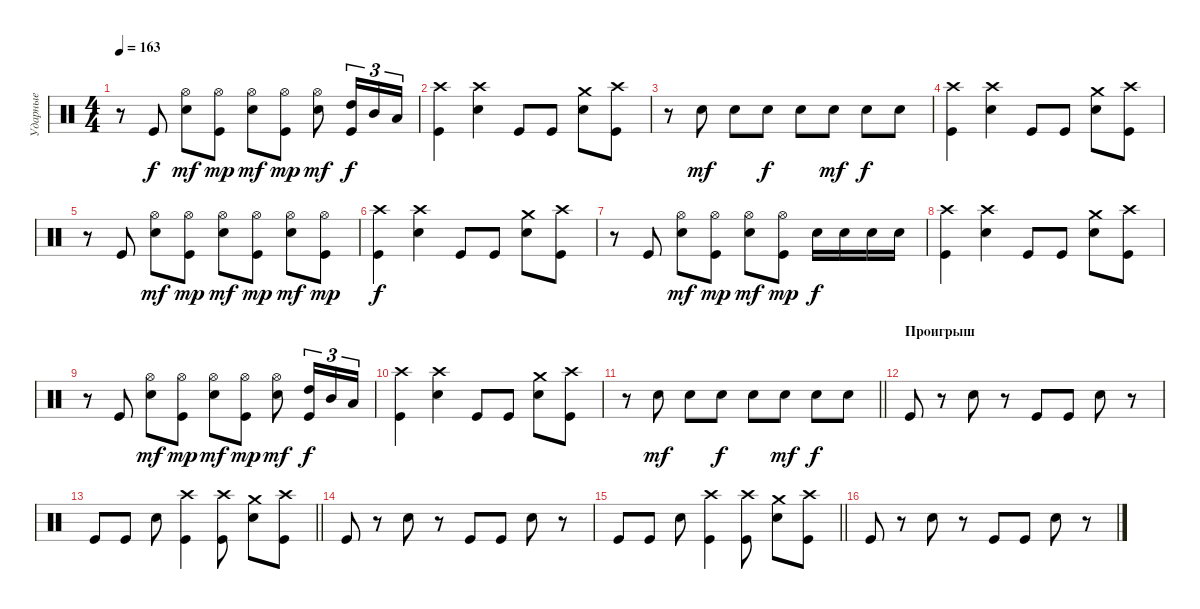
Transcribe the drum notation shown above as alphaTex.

\track ("Ударные" "Ударные") {instrument percussion}
\staff
\articulation defaults
\ts (4 4)
\tempo 163
\clef neutral
\ks c
r.8{dy f} "Kick (hit)".8 ("Hi-Hat (open)" "Snare (hit) 2").8{dy mf} ("Hi-Hat (open)" "Kick (hit)").8{dy mp} ("Hi-Hat (open)" "Snare (hit) 2").8{dy mf} ("Hi-Hat (open)" "Kick (hit)").8{dy mp} ("Hi-Hat (open)" "Snare (hit) 2").8{dy mf} ("High Tom (hit)" "Kick (hit)").16{tu (3 2) dy f} "Mid Tom (hit)".16{tu (3 2)} "Low Tom (hit)".16{tu (3 2)} |
("Crash high (hit)" "Kick (hit)").4 ("Crash high (hit)" "Snare (hit) 2").4 "Kick (hit)".8 "Kick (hit)".8 ("Crash medium (hit)" "Snare (hit) 2").8 ("Crash high (hit)" "Kick (hit)").8 |
r.8 "Snare (hit) 2".8{dy mf} "Snare (hit) 2".8 "Snare (hit) 2".8{dy f} "Snare (hit) 2".8 "Snare (hit) 2".8{dy mf} "Snare (hit) 2".8{dy f} "Snare (hit) 2".8 |
("Crash high (hit)" "Kick (hit)").4 ("Crash high (hit)" "Snare (hit) 2").4 "Kick (hit)".8 "Kick (hit)".8 ("Crash medium (hit)" "Snare (hit) 2").8 ("Crash high (hit)" "Kick (hit)").8 |
r.8 "Kick (hit)".8 ("Hi-Hat (open)" "Snare (hit) 2").8{dy mf} ("Hi-Hat (open)" "Kick (hit)").8{dy mp} ("Hi-Hat (open)" "Snare (hit) 2").8{dy mf} ("Hi-Hat (open)" "Kick (hit)").8{dy mp} ("Hi-Hat (open)" "Snare (hit) 2").8{dy mf} ("Hi-Hat (open)" "Kick (hit)").8{dy mp} |
("Crash high (hit)" "Kick (hit)").4{dy f} ("Crash high (hit)" "Snare (hit) 2").4 "Kick (hit)".8 "Kick (hit)".8 ("Crash medium (hit)" "Snare (hit) 2").8 ("Crash high (hit)" "Kick (hit)").8 |
r.8 "Kick (hit)".8 ("Hi-Hat (open)" "Snare (hit) 2").8{dy mf} ("Hi-Hat (open)" "Kick (hit)").8{dy mp} ("Hi-Hat (open)" "Snare (hit) 2").8{dy mf} ("Hi-Hat (open)" "Kick (hit)").8{dy mp} "Snare (hit) 2".16{dy f} "Snare (hit) 2".16 "Snare (hit) 2".16 "Snare (hit) 2".16 |
("Crash high (hit)" "Kick (hit)").4 ("Crash high (hit)" "Snare (hit) 2").4 "Kick (hit)".8 "Kick (hit)".8 ("Crash medium (hit)" "Snare (hit) 2").8 ("Crash high (hit)" "Kick (hit)").8 |
r.8 "Kick (hit)".8 ("Hi-Hat (open)" "Snare (hit) 2").8{dy mf} ("Hi-Hat (open)" "Kick (hit)").8{dy mp} ("Hi-Hat (open)" "Snare (hit) 2").8{dy mf} ("Hi-Hat (open)" "Kick (hit)").8{dy mp} ("Hi-Hat (open)" "Snare (hit) 2").8{dy mf} ("High Tom (hit)" "Kick (hit)").16{tu (3 2) dy f} "Mid Tom (hit)".16{tu (3 2)} "Low Tom (hit)".16{tu (3 2)} |
("Crash high (hit)" "Kick (hit)").4 ("Crash high (hit)" "Snare (hit) 2").4 "Kick (hit)".8 "Kick (hit)".8 ("Crash medium (hit)" "Snare (hit) 2").8 ("Crash high (hit)" "Kick (hit)").8 |
\barLineRight lightlight
r.8 "Snare (hit) 2".8{dy mf} "Snare (hit) 2".8 "Snare (hit) 2".8{dy f} "Snare (hit) 2".8 "Snare (hit) 2".8{dy mf} "Snare (hit) 2".8{dy f} "Snare (hit) 2".8 |
\section ("" "Проигрыш")
"Kick (hit)".8 r.8 "Snare (hit) 2".8 r.8 "Kick (hit)".8 "Kick (hit)".8 "Snare (hit) 2".8 r.8 |
\barLineRight lightlight "Kick (hit)".8 "Kick (hit)".8 "Snare (hit) 2".8
("Crash high (hit)" "Kick (hit)").4 ("Crash high (hit)" "Kick (hit)").8 ("Crash medium (hit)" "Snare (hit) 2").8 ("Crash high (hit)" "Kick (hit)").8 |
"Kick (hit)".8 r.8 "Snare (hit) 2".8 r.8 "Kick (hit)".8 "Kick (hit)".8 "Snare (hit) 2".8 r.8 |
\barLineRight lightlight "Kick (hit)".8 "Kick (hit)".8 "Snare (hit) 2".8
("Crash high (hit)" "Kick (hit)").4 ("Crash high (hit)" "Kick (hit)").8 ("Crash medium (hit)" "Snare (hit) 2").8 ("Crash high (hit)" "Kick (hit)").8 |
"Kick (hit)".8 r.8 "Snare (hit) 2".8 r.8 "Kick (hit)".8 "Kick (hit)".8 "Snare (hit) 2".8 r.8
